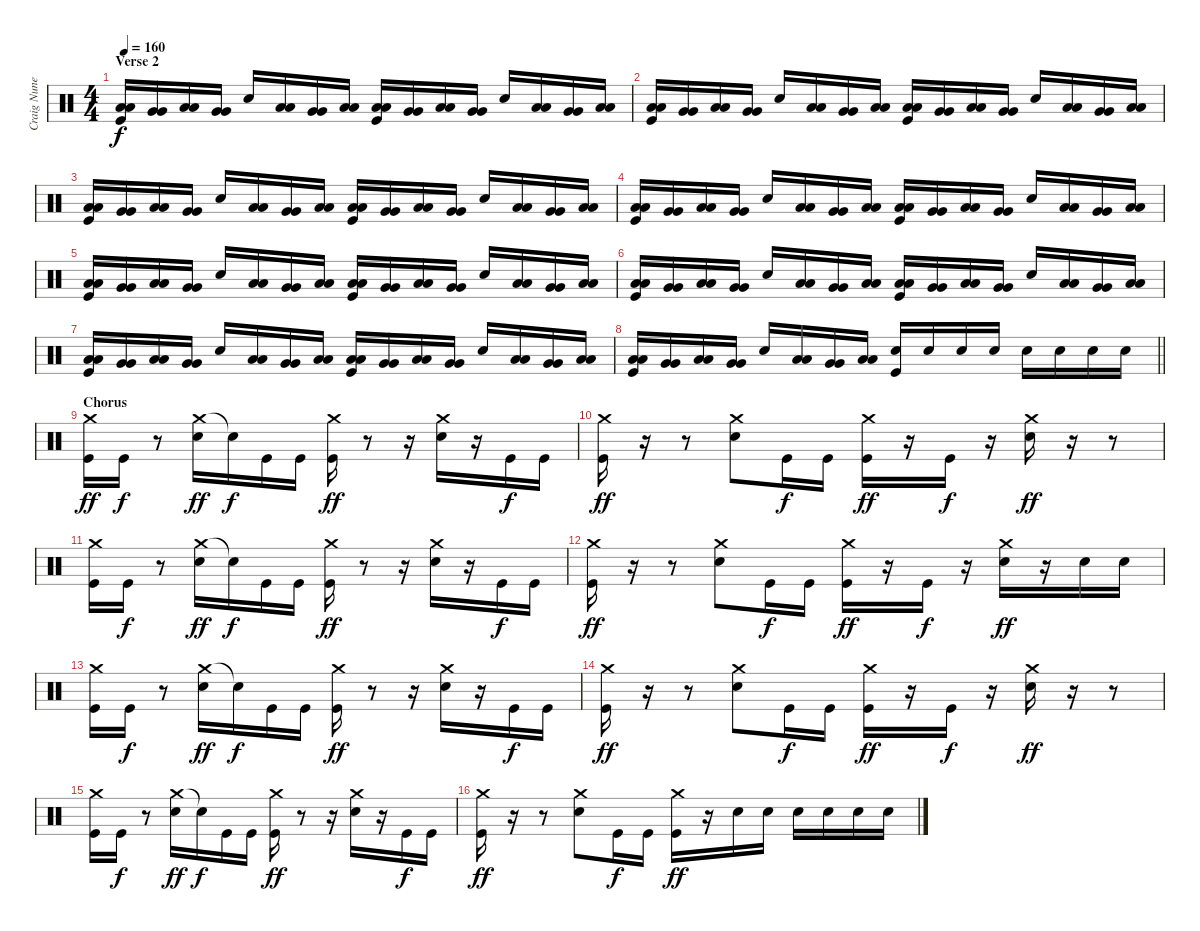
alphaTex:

\track ("Craig Nunenmacher" "Craig Nune") {instrument percussion}
\staff {score}
\articulation defaults
\ts (4 4)
\section ("" "Verse 2")
\tempo 160
\clef neutral
\ks c
("Low Tom (hit)" "Low Tom (hit)" "Kick (hit)").16{dy f} ("Very Low Tom (hit)" "Very Low Tom (hit)").16 ("Low Tom (hit)" "Low Tom (hit)").16 ("Very Low Tom (hit)" "Very Low Tom (hit)").16 "Snare (hit) 2".16 ("Low Tom (hit)" "Low Tom (hit)").16 ("Very Low Tom (hit)" "Very Low Tom (hit)").16 ("Low Tom (hit)" "Low Tom (hit)").16 ("Low Tom (hit)" "Low Tom (hit)" "Kick (hit)").16 ("Very Low Tom (hit)" "Very Low Tom (hit)").16 ("Low Tom (hit)" "Low Tom (hit)").16 ("Very Low Tom (hit)" "Very Low Tom (hit)").16 "Snare (hit) 2".16 ("Low Tom (hit)" "Low Tom (hit)").16 ("Very Low Tom (hit)" "Very Low Tom (hit)").16 ("Low Tom (hit)" "Low Tom (hit)").16 |
("Low Tom (hit)" "Low Tom (hit)" "Kick (hit)").16 ("Very Low Tom (hit)" "Very Low Tom (hit)").16 ("Low Tom (hit)" "Low Tom (hit)").16 ("Very Low Tom (hit)" "Very Low Tom (hit)").16 "Snare (hit) 2".16 ("Low Tom (hit)" "Low Tom (hit)").16 ("Very Low Tom (hit)" "Very Low Tom (hit)").16 ("Low Tom (hit)" "Low Tom (hit)").16 ("Low Tom (hit)" "Low Tom (hit)" "Kick (hit)").16 ("Very Low Tom (hit)" "Very Low Tom (hit)").16 ("Low Tom (hit)" "Low Tom (hit)").16 ("Very Low Tom (hit)" "Very Low Tom (hit)").16 "Snare (hit) 2".16 ("Low Tom (hit)" "Low Tom (hit)").16 ("Very Low Tom (hit)" "Very Low Tom (hit)").16 ("Low Tom (hit)" "Low Tom (hit)").16 |
("Low Tom (hit)" "Low Tom (hit)" "Kick (hit)").16 ("Very Low Tom (hit)" "Very Low Tom (hit)").16 ("Low Tom (hit)" "Low Tom (hit)").16 ("Very Low Tom (hit)" "Very Low Tom (hit)").16 "Snare (hit) 2".16 ("Low Tom (hit)" "Low Tom (hit)").16 ("Very Low Tom (hit)" "Very Low Tom (hit)").16 ("Low Tom (hit)" "Low Tom (hit)").16 ("Low Tom (hit)" "Low Tom (hit)" "Kick (hit)").16 ("Very Low Tom (hit)" "Very Low Tom (hit)").16 ("Low Tom (hit)" "Low Tom (hit)").16 ("Very Low Tom (hit)" "Very Low Tom (hit)").16 "Snare (hit) 2".16 ("Low Tom (hit)" "Low Tom (hit)").16 ("Very Low Tom (hit)" "Very Low Tom (hit)").16 ("Low Tom (hit)" "Low Tom (hit)").16 |
("Low Tom (hit)" "Low Tom (hit)" "Kick (hit)").16 ("Very Low Tom (hit)" "Very Low Tom (hit)").16 ("Low Tom (hit)" "Low Tom (hit)").16 ("Very Low Tom (hit)" "Very Low Tom (hit)").16 "Snare (hit) 2".16 ("Low Tom (hit)" "Low Tom (hit)").16 ("Very Low Tom (hit)" "Very Low Tom (hit)").16 ("Low Tom (hit)" "Low Tom (hit)").16 ("Low Tom (hit)" "Low Tom (hit)" "Kick (hit)").16 ("Very Low Tom (hit)" "Very Low Tom (hit)").16 ("Low Tom (hit)" "Low Tom (hit)").16 ("Very Low Tom (hit)" "Very Low Tom (hit)").16 "Snare (hit) 2".16 ("Low Tom (hit)" "Low Tom (hit)").16 ("Very Low Tom (hit)" "Very Low Tom (hit)").16 ("Low Tom (hit)" "Low Tom (hit)").16 |
("Low Tom (hit)" "Low Tom (hit)" "Kick (hit)").16 ("Very Low Tom (hit)" "Very Low Tom (hit)").16 ("Low Tom (hit)" "Low Tom (hit)").16 ("Very Low Tom (hit)" "Very Low Tom (hit)").16 "Snare (hit) 2".16 ("Low Tom (hit)" "Low Tom (hit)").16 ("Very Low Tom (hit)" "Very Low Tom (hit)").16 ("Low Tom (hit)" "Low Tom (hit)").16 ("Low Tom (hit)" "Low Tom (hit)" "Kick (hit)").16 ("Very Low Tom (hit)" "Very Low Tom (hit)").16 ("Low Tom (hit)" "Low Tom (hit)").16 ("Very Low Tom (hit)" "Very Low Tom (hit)").16 "Snare (hit) 2".16 ("Low Tom (hit)" "Low Tom (hit)").16 ("Very Low Tom (hit)" "Very Low Tom (hit)").16 ("Low Tom (hit)" "Low Tom (hit)").16 |
("Low Tom (hit)" "Low Tom (hit)" "Kick (hit)").16 ("Very Low Tom (hit)" "Very Low Tom (hit)").16 ("Low Tom (hit)" "Low Tom (hit)").16 ("Very Low Tom (hit)" "Very Low Tom (hit)").16 "Snare (hit) 2".16 ("Low Tom (hit)" "Low Tom (hit)").16 ("Very Low Tom (hit)" "Very Low Tom (hit)").16 ("Low Tom (hit)" "Low Tom (hit)").16 ("Low Tom (hit)" "Low Tom (hit)" "Kick (hit)").16 ("Very Low Tom (hit)" "Very Low Tom (hit)").16 ("Low Tom (hit)" "Low Tom (hit)").16 ("Very Low Tom (hit)" "Very Low Tom (hit)").16 "Snare (hit) 2".16 ("Low Tom (hit)" "Low Tom (hit)").16 ("Very Low Tom (hit)" "Very Low Tom (hit)").16 ("Low Tom (hit)" "Low Tom (hit)").16 |
("Low Tom (hit)" "Low Tom (hit)" "Kick (hit)").16 ("Very Low Tom (hit)" "Very Low Tom (hit)").16 ("Low Tom (hit)" "Low Tom (hit)").16 ("Very Low Tom (hit)" "Very Low Tom (hit)").16 "Snare (hit) 2".16 ("Low Tom (hit)" "Low Tom (hit)").16 ("Very Low Tom (hit)" "Very Low Tom (hit)").16 ("Low Tom (hit)" "Low Tom (hit)").16 ("Low Tom (hit)" "Low Tom (hit)" "Kick (hit)").16 ("Very Low Tom (hit)" "Very Low Tom (hit)").16 ("Low Tom (hit)" "Low Tom (hit)").16 ("Very Low Tom (hit)" "Very Low Tom (hit)").16 "Snare (hit) 2".16 ("Low Tom (hit)" "Low Tom (hit)").16 ("Very Low Tom (hit)" "Very Low Tom (hit)").16 ("Low Tom (hit)" "Low Tom (hit)").16 |
\barLineRight lightlight
("Low Tom (hit)" "Low Tom (hit)" "Kick (hit)").16 ("Very Low Tom (hit)" "Very Low Tom (hit)").16 ("Low Tom (hit)" "Low Tom (hit)").16 ("Very Low Tom (hit)" "Very Low Tom (hit)").16 "Snare (hit) 2".16 ("Low Tom (hit)" "Low Tom (hit)").16 ("Very Low Tom (hit)" "Very Low Tom (hit)").16 ("Low Tom (hit)" "Low Tom (hit)").16 ("Snare (hit) 2" "Kick (hit)").16 "Snare (hit) 2".16 "Snare (hit) 2".16 "Snare (hit) 2".16 "Snare (hit) 2".16 "Snare (hit) 2".16 "Snare (hit) 2".16 "Snare (hit) 2".16 |
\section ("" "Chorus")
("Crash medium (hit)" "Kick (hit)").16{dy ff} "Kick (hit)".16{dy f} r.8 ("Crash medium (hit)" "Snare (hit) 2").16{dy ff} "Snare (hit)"{t}.16{dy f} "Kick (hit)".16 "Kick (hit)".16 ("Crash medium (hit)" "Kick (hit)").16{dy ff} r.8 r.16 ("Crash medium (hit)" "Snare (hit) 2").16 r.16 "Kick (hit)".16{dy f} "Kick (hit)".16 |
("Crash medium (hit)" "Kick (hit)").16{dy ff} r.16 r.8 ("Crash medium (hit)" "Snare (hit) 2").8 "Kick (hit)".16{dy f} "Kick (hit)".16 ("Crash medium (hit)" "Kick (hit)").16{dy ff} r.16 "Kick (hit)".16{dy f} r.16 ("Crash medium (hit)" "Snare (hit) 2").16{dy ff} r.16 r.8 |
("Crash medium (hit)" "Kick (hit)").16 "Kick (hit)".16{dy f} r.8 ("Crash medium (hit)" "Snare (hit) 2").16{dy ff} "Snare (hit)"{t}.16{dy f} "Kick (hit)".16 "Kick (hit)".16 ("Crash medium (hit)" "Kick (hit)").16{dy ff} r.8 r.16 ("Crash medium (hit)" "Snare (hit) 2").16 r.16 "Kick (hit)".16{dy f} "Kick (hit)".16 |
("Crash medium (hit)" "Kick (hit)").16{dy ff} r.16 r.8 ("Crash medium (hit)" "Snare (hit) 2").8 "Kick (hit)".16{dy f} "Kick (hit)".16 ("Crash medium (hit)" "Kick (hit)").16{dy ff} r.16 "Kick (hit)".16{dy f} r.16 ("Crash medium (hit)" "Snare (hit) 2").16{dy ff} r.16 "Snare (hit) 2".16 "Snare (hit) 2".16 |
("Crash medium (hit)" "Kick (hit)").16 "Kick (hit)".16{dy f} r.8 ("Crash medium (hit)" "Snare (hit) 2").16{dy ff} "Snare (hit)"{t}.16{dy f} "Kick (hit)".16 "Kick (hit)".16 ("Crash medium (hit)" "Kick (hit)").16{dy ff} r.8 r.16 ("Crash medium (hit)" "Snare (hit) 2").16 r.16 "Kick (hit)".16{dy f} "Kick (hit)".16 |
("Crash medium (hit)" "Kick (hit)").16{dy ff} r.16 r.8 ("Crash medium (hit)" "Snare (hit) 2").8 "Kick (hit)".16{dy f} "Kick (hit)".16 ("Crash medium (hit)" "Kick (hit)").16{dy ff} r.16 "Kick (hit)".16{dy f} r.16 ("Crash medium (hit)" "Snare (hit) 2").16{dy ff} r.16 r.8 |
("Crash medium (hit)" "Kick (hit)").16 "Kick (hit)".16{dy f} r.8 ("Crash medium (hit)" "Snare (hit) 2").16{dy ff} "Snare (hit)"{t}.16{dy f} "Kick (hit)".16 "Kick (hit)".16 ("Crash medium (hit)" "Kick (hit)").16{dy ff} r.8 r.16 ("Crash medium (hit)" "Snare (hit) 2").16 r.16 "Kick (hit)".16{dy f} "Kick (hit)".16 |
("Crash medium (hit)" "Kick (hit)").16{dy ff} r.16 r.8 ("Crash medium (hit)" "Snare (hit) 2").8 "Kick (hit)".16{dy f} "Kick (hit)".16 ("Crash medium (hit)" "Kick (hit)").16{dy ff} r.16 "Snare (hit) 2".16 "Snare (hit) 2".16 "Snare (hit) 2".16 "Snare (hit) 2".16 "Snare (hit) 2".16 "Snare (hit) 2".16
